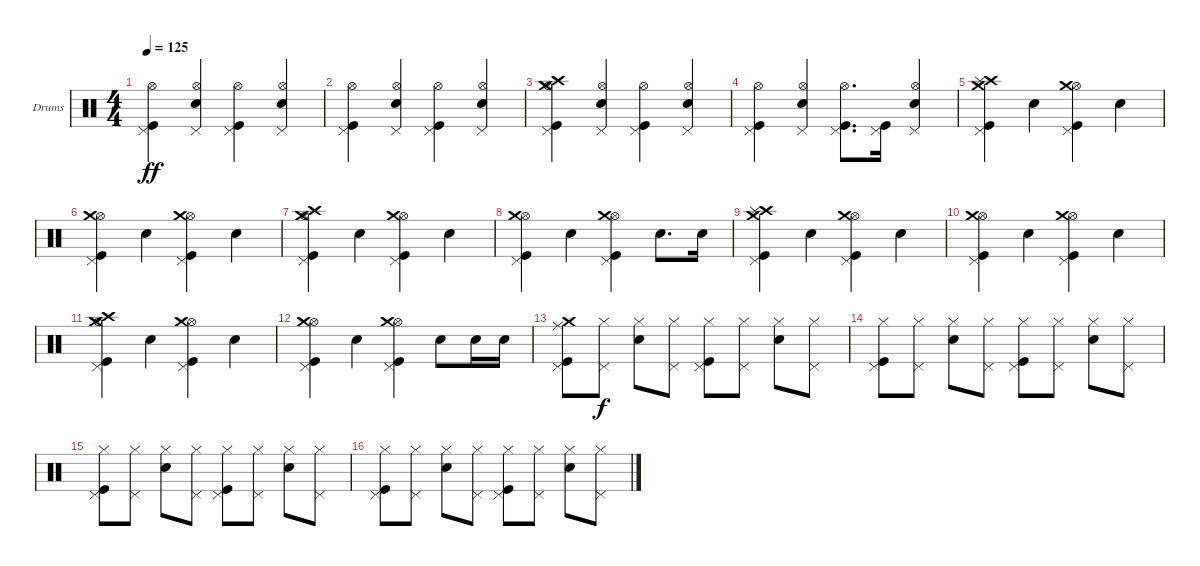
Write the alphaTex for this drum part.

\defaultSystemsLayout 4
\bracketExtendMode groupsimilarinstruments
\firstSystemTrackNameOrientation horizontal
\otherSystemsTrackNameOrientation horizontal
\track ("Drums" "Drums") {instrument percussion}
\staff {score}
\articulation defaults
\ts (4 4)
\tempo 125
\clef neutral
\scale
0.333333
\ks c
("Kick (hit)" "Pedal Hi-Hat (hit)" "Hi-Hat (open)").4{dy ff} ("Snare (hit) 2" "Pedal Hi-Hat (hit)" "Hi-Hat (open)").4 ("Kick (hit)" "Pedal Hi-Hat (hit)" "Hi-Hat (open)").4 ("Snare (hit) 2" "Pedal Hi-Hat (hit)" "Hi-Hat (open)").4 |
\scale
0.333333 ("Kick (hit)" "Pedal Hi-Hat (hit)" "Hi-Hat (open)").4 ("Snare (hit) 2" "Pedal Hi-Hat (hit)" "Hi-Hat (open)").4 ("Kick (hit)" "Pedal Hi-Hat (hit)" "Hi-Hat (open)").4 ("Snare (hit) 2" "Pedal Hi-Hat (hit)" "Hi-Hat (open)").4 |
\scale
0.333333 ("Kick (hit)" "Pedal Hi-Hat (hit)" "Hi-Hat (open)" "Crash high (hit)" "Crash medium (hit)").4 ("Snare (hit) 2" "Pedal Hi-Hat (hit)" "Hi-Hat (open)").4 ("Kick (hit)" "Pedal Hi-Hat (hit)" "Hi-Hat (open)").4 ("Snare (hit) 2" "Pedal Hi-Hat (hit)" "Hi-Hat (open)").4 |
\scale
0.333333 ("Kick (hit)" "Pedal Hi-Hat (hit)" "Hi-Hat (open)").4 ("Snare (hit) 2" "Pedal Hi-Hat (hit)" "Hi-Hat (open)").4 ("Kick (hit)" "Pedal Hi-Hat (hit)" "Hi-Hat (open)").8{d} ("Kick (hit)" "Pedal Hi-Hat (hit)").16 ("Snare (hit) 2" "Pedal Hi-Hat (hit)" "Hi-Hat (open)").4 |
\scale
0.333333 ("Kick (hit)" "Pedal Hi-Hat (hit)" "Crash high (hit)" "Crash medium (hit)" "Splash (hit)").4 "Snare (hit) 2".4 ("Kick (hit)" "Pedal Hi-Hat (hit)" "Hi-Hat (open)" "Crash medium (hit)").4 "Snare (hit) 2".4 |
\scale
0.333333 ("Kick (hit)" "Pedal Hi-Hat (hit)" "Hi-Hat (open)" "Crash medium (hit)").4 "Snare (hit) 2".4 ("Kick (hit)" "Pedal Hi-Hat (hit)" "Hi-Hat (open)" "Crash medium (hit)").4 "Snare (hit) 2".4 |
\scale
0.333333 ("Kick (hit)" "Pedal Hi-Hat (hit)" "Hi-Hat (open)" "Crash medium (hit)" "Crash high (hit)").4 "Snare (hit) 2".4 ("Kick (hit)" "Pedal Hi-Hat (hit)" "Hi-Hat (open)" "Crash medium (hit)").4 "Snare (hit) 2".4 |
\scale
0.333333 ("Kick (hit)" "Pedal Hi-Hat (hit)" "Hi-Hat (open)" "Crash medium (hit)").4 "Snare (hit) 2".4 ("Kick (hit)" "Pedal Hi-Hat (hit)" "Hi-Hat (open)" "Crash medium (hit)").4 "Snare (hit) 2".8{d} "Snare (hit) 2".16 |
\scale
0.333333 ("Kick (hit)" "Pedal Hi-Hat (hit)" "Crash high (hit)" "Crash medium (hit)" "Splash (hit)").4 "Snare (hit) 2".4 ("Kick (hit)" "Pedal Hi-Hat (hit)" "Hi-Hat (open)" "Crash medium (hit)").4 "Snare (hit) 2".4 |
\scale
0.333333 ("Kick (hit)" "Pedal Hi-Hat (hit)" "Hi-Hat (open)" "Crash medium (hit)").4 "Snare (hit) 2".4 ("Kick (hit)" "Pedal Hi-Hat (hit)" "Hi-Hat (open)" "Crash medium (hit)").4 "Snare (hit) 2".4 |
\scale
0.333333 ("Kick (hit)" "Pedal Hi-Hat (hit)" "Hi-Hat (open)" "Crash medium (hit)" "Crash high (hit)").4 "Snare (hit) 2".4 ("Kick (hit)" "Pedal Hi-Hat (hit)" "Hi-Hat (open)" "Crash medium (hit)").4 "Snare (hit) 2".4 |
\scale
0.333333 ("Kick (hit)" "Pedal Hi-Hat (hit)" "Hi-Hat (open)" "Crash medium (hit)").4 "Snare (hit) 2".4 ("Kick (hit)" "Pedal Hi-Hat (hit)" "Hi-Hat (open)" "Crash medium (hit)").4 "Snare (hit) 2".8 "Snare (hit) 2".16 "Snare (hit) 2".16 |
\scale
0.333333 ("Pedal Hi-Hat (hit)" "Kick (hit)" "Crash medium (hit)" "Ride (middle)").8 ("Hi-Hat (closed)" "Pedal Hi-Hat (hit)").8{dy f} ("Snare (hit) 2" "Hi-Hat (closed)").8 ("Hi-Hat (closed)" "Pedal Hi-Hat (hit)").8 ("Pedal Hi-Hat (hit)" "Kick (hit)" "Hi-Hat (closed)").8 ("Hi-Hat (closed)" "Pedal Hi-Hat (hit)").8 ("Snare (hit) 2" "Hi-Hat (closed)").8 ("Hi-Hat (closed)" "Pedal Hi-Hat (hit)").8 |
\scale
0.333333 ("Pedal Hi-Hat (hit)" "Kick (hit)" "Hi-Hat (closed)").8 ("Hi-Hat (closed)" "Pedal Hi-Hat (hit)").8 ("Snare (hit) 2" "Hi-Hat (closed)").8 ("Hi-Hat (closed)" "Pedal Hi-Hat (hit)").8 ("Pedal Hi-Hat (hit)" "Kick (hit)" "Hi-Hat (closed)").8 ("Hi-Hat (closed)" "Pedal Hi-Hat (hit)").8 ("Snare (hit) 2" "Hi-Hat (closed)").8 ("Hi-Hat (closed)" "Pedal Hi-Hat (hit)").8 |
\scale
0.333333 ("Pedal Hi-Hat (hit)" "Kick (hit)" "Hi-Hat (closed)").8 ("Hi-Hat (closed)" "Pedal Hi-Hat (hit)").8 ("Snare (hit) 2" "Hi-Hat (closed)").8 ("Hi-Hat (closed)" "Pedal Hi-Hat (hit)").8 ("Pedal Hi-Hat (hit)" "Kick (hit)" "Hi-Hat (closed)").8 ("Hi-Hat (closed)" "Pedal Hi-Hat (hit)").8 ("Snare (hit) 2" "Hi-Hat (closed)").8 ("Hi-Hat (closed)" "Pedal Hi-Hat (hit)").8 |
\scale
0.333333 ("Pedal Hi-Hat (hit)" "Kick (hit)" "Hi-Hat (closed)").8 ("Hi-Hat (closed)" "Pedal Hi-Hat (hit)").8 ("Snare (hit) 2" "Hi-Hat (closed)").8 ("Hi-Hat (closed)" "Pedal Hi-Hat (hit)").8 ("Pedal Hi-Hat (hit)" "Kick (hit)" "Hi-Hat (closed)").8 ("Hi-Hat (closed)" "Pedal Hi-Hat (hit)").8 ("Snare (hit) 2" "Hi-Hat (closed)").8 ("Hi-Hat (closed)" "Pedal Hi-Hat (hit)").8
